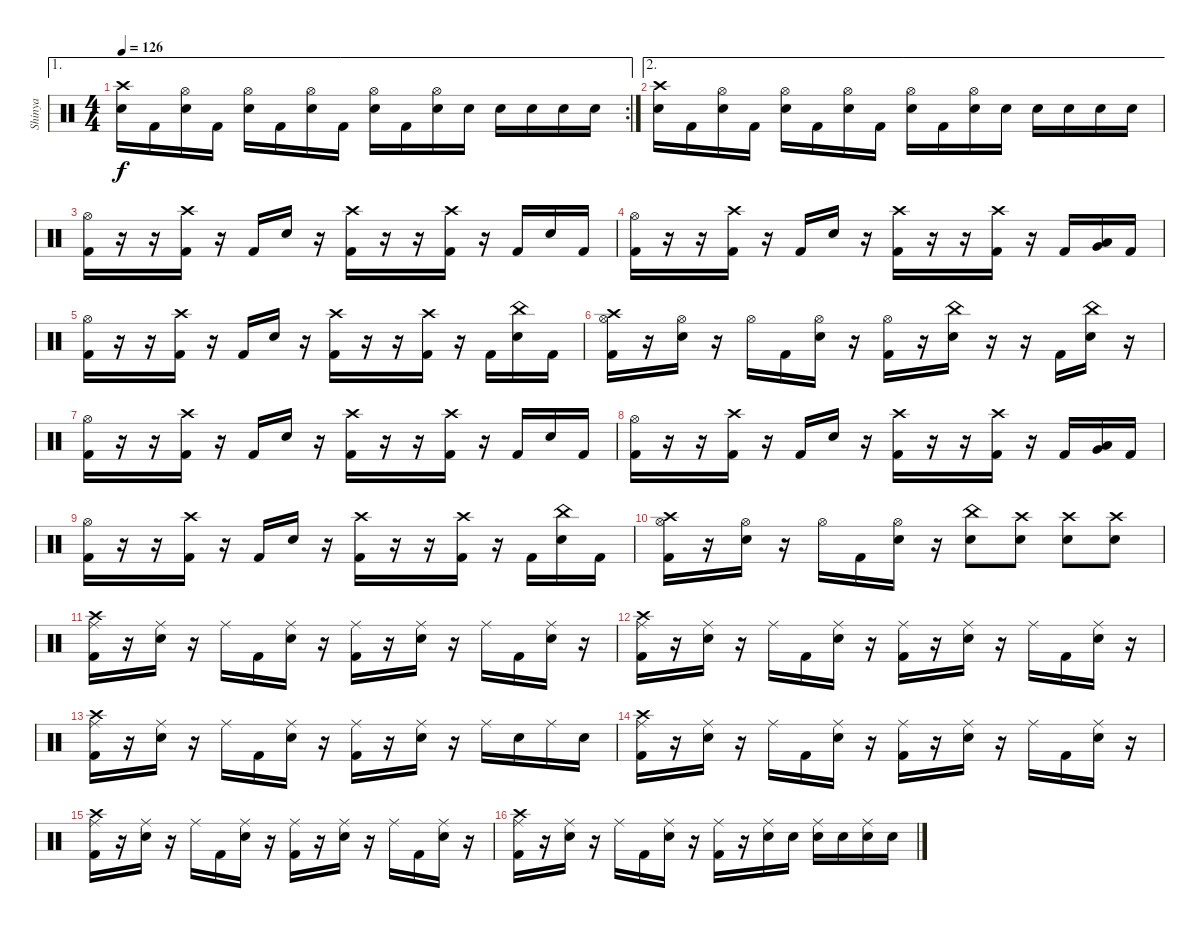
\track ("Shinya" "Shinya") {instrument percussion}
\staff {score}
\articulation defaults
\ae 1
\rc 2
\ts (4 4)
\tempo 126
\clef neutral
\ks c
("Crash high (hit)" "Electric Snare (hit)").16{dy f} "Kick (hit) 2".16 ("Hi-Hat (open)" "Electric Snare (hit)").16 "Kick (hit) 2".16 ("Hi-Hat (open)" "Electric Snare (hit)").16 "Kick (hit) 2".16 ("Hi-Hat (open)" "Electric Snare (hit)").16 "Kick (hit) 2".16 ("Hi-Hat (open)" "Electric Snare (hit)").16 "Kick (hit) 2".16 ("Hi-Hat (open)" "Electric Snare (hit)").16 "Electric Snare (hit)".16 "Electric Snare (hit)".16 "Electric Snare (hit)".16 "Electric Snare (hit)".16 "Electric Snare (hit)".16 |
\ae 2
("Crash high (hit)" "Electric Snare (hit)").16 "Kick (hit) 2".16 ("Hi-Hat (open)" "Electric Snare (hit)").16 "Kick (hit) 2".16 ("Hi-Hat (open)" "Electric Snare (hit)").16 "Kick (hit) 2".16 ("Hi-Hat (open)" "Electric Snare (hit)").16 "Kick (hit) 2".16 ("Hi-Hat (open)" "Electric Snare (hit)").16 "Kick (hit) 2".16 ("Hi-Hat (open)" "Electric Snare (hit)").16 "Electric Snare (hit)".16 "Electric Snare (hit)".16 "Electric Snare (hit)".16 "Electric Snare (hit)".16 "Electric Snare (hit)".16 |
("Hi-Hat (open)" "Kick (hit) 2").16 r.16 r.16 ("Crash high (hit)" "Kick (hit) 2").16 r.16 "Kick (hit) 2".16 "Electric Snare (hit)".16 r.16 ("Crash high (hit)" "Kick (hit) 2").16 r.16 r.16 ("Crash high (hit)" "Kick (hit) 2").16 r.16 "Kick (hit) 2".16 "Electric Snare (hit)".16 "Kick (hit) 2"{x}.16 |
("Hi-Hat (open)" "Kick (hit) 2").16 r.16 r.16 ("Crash high (hit)" "Kick (hit) 2").16 r.16 "Kick (hit) 2".16 "Electric Snare (hit)".16 r.16 ("Crash high (hit)" "Kick (hit) 2").16 r.16 r.16 ("Crash high (hit)" "Kick (hit) 2").16 r.16 "Kick (hit) 2".16 ("Low Floor Tom (hit)" "Very Low Tom (hit)").16 "Kick (hit) 2"{x}.16 |
("Hi-Hat (open)" "Kick (hit) 2").16 r.16 r.16 ("Crash high (hit)" "Kick (hit) 2").16 r.16 "Kick (hit) 2".16 "Electric Snare (hit)".16 r.16 ("Crash high (hit)" "Kick (hit) 2").16 r.16 r.16 ("Crash high (hit)" "Kick (hit) 2").16 r.16 "Kick (hit) 2".16 ("Electric Snare (hit)" "China (hit)").16 "Kick (hit) 2"{x}.16 |
("Hi-Hat (open)" "Crash high (hit)" "Kick (hit) 2").16 r.16 ("Hi-Hat (open)" "Electric Snare (hit)").16 r.16 "Hi-Hat (open)".16 "Kick (hit) 2".16 ("Hi-Hat (open)" "Electric Snare (hit)").16 r.16 ("Hi-Hat (open)" "Kick (hit) 2").16 r.16 ("China (hit)" "Electric Snare (hit)").16 r.16 r.16 "Kick (hit) 2".16 ("China (hit)" "Electric Snare (hit)").16 r.16 |
("Hi-Hat (open)" "Kick (hit) 2").16 r.16 r.16 ("Crash high (hit)" "Kick (hit) 2").16 r.16 "Kick (hit) 2".16 "Electric Snare (hit)".16 r.16 ("Crash high (hit)" "Kick (hit) 2").16 r.16 r.16 ("Crash high (hit)" "Kick (hit) 2").16 r.16 "Kick (hit) 2".16 "Electric Snare (hit)".16 "Kick (hit) 2"{x}.16 |
("Hi-Hat (open)" "Kick (hit) 2").16 r.16 r.16 ("Crash high (hit)" "Kick (hit) 2").16 r.16 "Kick (hit) 2".16 "Electric Snare (hit)".16 r.16 ("Crash high (hit)" "Kick (hit) 2").16 r.16 r.16 ("Crash high (hit)" "Kick (hit) 2").16 r.16 "Kick (hit) 2".16 ("Low Floor Tom (hit)" "Very Low Tom (hit)").16 "Kick (hit) 2"{x}.16 |
("Hi-Hat (open)" "Kick (hit) 2").16 r.16 r.16 ("Crash high (hit)" "Kick (hit) 2").16 r.16 "Kick (hit) 2".16 "Electric Snare (hit)".16 r.16 ("Crash high (hit)" "Kick (hit) 2").16 r.16 r.16 ("Crash high (hit)" "Kick (hit) 2").16 r.16 "Kick (hit) 2".16 ("Electric Snare (hit)" "China (hit)").16 "Kick (hit) 2"{x}.16 |
("Hi-Hat (open)" "Crash high (hit)" "Kick (hit) 2").16 r.16 ("Hi-Hat (open)" "Electric Snare (hit)").16 r.16 "Hi-Hat (open)".16 "Kick (hit) 2".16 ("Hi-Hat (open)" "Electric Snare (hit)").16 r.16 ("China (hit)" "Electric Snare (hit)").8 ("Crash high (hit)" "Electric Snare (hit)").8 ("Crash high (hit)" "Electric Snare (hit)").8 ("Crash high (hit)" "Electric Snare (hit)").8 |
("Ride (middle)" "Crash high (hit)" "Kick (hit) 2").16 r.16 ("Ride (middle)" "Electric Snare (hit)").16 r.16 "Ride (middle)".16 "Kick (hit) 2".16 ("Ride (middle)" "Electric Snare (hit)").16 r.16 ("Ride (middle)" "Kick (hit) 2").16 r.16 ("Ride (middle)" "Electric Snare (hit)").16 r.16 "Ride (middle)".16 "Kick (hit) 2".16 ("Ride (middle)" "Electric Snare (hit)").16 r.16 |
("Ride (middle)" "Crash high (hit)" "Kick (hit) 2").16 r.16 ("Ride (middle)" "Electric Snare (hit)").16 r.16 "Ride (middle)".16 "Kick (hit) 2".16 ("Ride (middle)" "Electric Snare (hit)").16 r.16 ("Ride (middle)" "Kick (hit) 2").16 r.16 ("Ride (middle)" "Electric Snare (hit)").16 r.16 "Ride (middle)".16 "Kick (hit) 2".16 ("Ride (middle)" "Electric Snare (hit)").16 r.16 |
("Ride (middle)" "Crash high (hit)" "Kick (hit) 2").16 r.16 ("Ride (middle)" "Electric Snare (hit)").16 r.16 "Ride (middle)".16 "Kick (hit) 2".16 ("Ride (middle)" "Electric Snare (hit)").16 r.16 ("Ride (middle)" "Kick (hit) 2").16 r.16 ("Ride (middle)" "Electric Snare (hit)").16 r.16 "Ride (middle)".16 "Electric Snare (hit)".16 "Ride (middle)".16 "Electric Snare (hit)".16 |
("Ride (middle)" "Crash high (hit)" "Kick (hit) 2").16 r.16 ("Ride (middle)" "Electric Snare (hit)").16 r.16 "Ride (middle)".16 "Kick (hit) 2".16 ("Ride (middle)" "Electric Snare (hit)").16 r.16 ("Ride (middle)" "Kick (hit) 2").16 r.16 ("Ride (middle)" "Electric Snare (hit)").16 r.16 "Ride (middle)".16 "Kick (hit) 2".16 ("Ride (middle)" "Electric Snare (hit)").16 r.16 |
("Ride (middle)" "Crash high (hit)" "Kick (hit) 2").16 r.16 ("Ride (middle)" "Electric Snare (hit)").16 r.16 "Ride (middle)".16 "Kick (hit) 2".16 ("Ride (middle)" "Electric Snare (hit)").16 r.16 ("Ride (middle)" "Kick (hit) 2").16 r.16 ("Ride (middle)" "Electric Snare (hit)").16 r.16 "Ride (middle)".16 "Kick (hit) 2".16 ("Ride (middle)" "Electric Snare (hit)").16 r.16 |
("Ride (middle)" "Crash high (hit)" "Kick (hit) 2").16 r.16 ("Ride (middle)" "Electric Snare (hit)").16 r.16 "Ride (middle)".16 "Kick (hit) 2".16 ("Ride (middle)" "Electric Snare (hit)").16 r.16 ("Ride (middle)" "Kick (hit) 2").16 r.16 ("Ride (middle)" "Electric Snare (hit)").16 "Electric Snare (hit)".16 ("Ride (middle)" "Electric Snare (hit)").16 "Electric Snare (hit)".16 ("Ride (middle)" "Electric Snare (hit)").16 "Electric Snare (hit)".16
